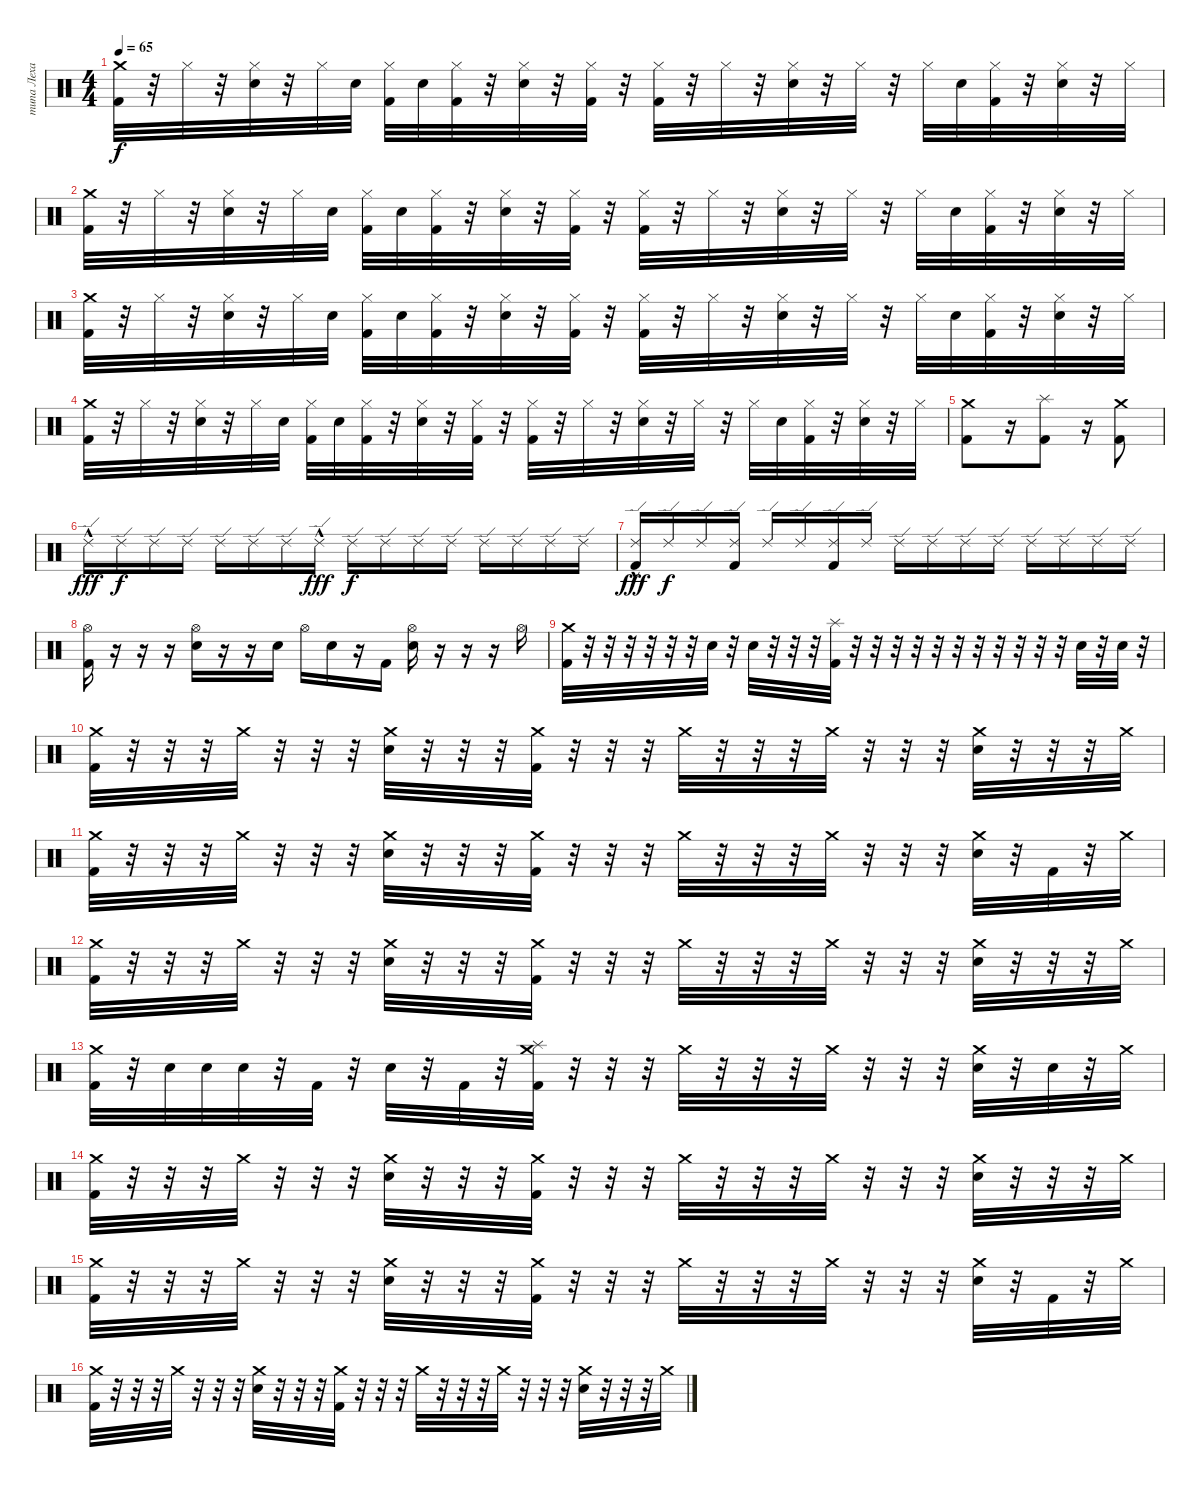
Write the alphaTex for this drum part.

\track ("типа Леха" "типа Леха") {instrument percussion}
\staff {score}
\articulation defaults
\ts (4 4)
\tempo 65
\clef neutral
\ks c
("Kick (hit) 2" "Crash medium (hit)").32{dy f} r.32 "Hi-Hat (closed)".32 r.32 ("Electric Snare (hit)" "Hi-Hat (closed)").32 r.32 "Hi-Hat (closed)".32 "Electric Snare (hit)".32 ("Kick (hit) 2" "Hi-Hat (closed)").32 "Electric Snare (hit)".32 ("Kick (hit) 2" "Hi-Hat (closed)").32 r.32 ("Electric Snare (hit)" "Hi-Hat (closed)").32 r.32 ("Kick (hit) 2" "Hi-Hat (closed)").32 r.32 ("Kick (hit) 2" "Hi-Hat (closed)").32 r.32 "Hi-Hat (closed)".32 r.32 ("Electric Snare (hit)" "Hi-Hat (closed)").32 r.32 "Hi-Hat (closed)".32 r.32 "Hi-Hat (closed)".32 "Electric Snare (hit)".32 ("Kick (hit) 2" "Hi-Hat (closed)").32 r.32 ("Electric Snare (hit)" "Hi-Hat (closed)").32 r.32 "Hi-Hat (closed)".32 |
("Kick (hit) 2" "Crash medium (hit)").32 r.32 "Hi-Hat (closed)".32 r.32 ("Electric Snare (hit)" "Hi-Hat (closed)").32 r.32 "Hi-Hat (closed)".32 "Electric Snare (hit)".32 ("Kick (hit) 2" "Hi-Hat (closed)").32 "Electric Snare (hit)".32 ("Kick (hit) 2" "Hi-Hat (closed)").32 r.32 ("Electric Snare (hit)" "Hi-Hat (closed)").32 r.32 ("Kick (hit) 2" "Hi-Hat (closed)").32 r.32 ("Kick (hit) 2" "Hi-Hat (closed)").32 r.32 "Hi-Hat (closed)".32 r.32 ("Electric Snare (hit)" "Hi-Hat (closed)").32 r.32 "Hi-Hat (closed)".32 r.32 "Hi-Hat (closed)".32 "Electric Snare (hit)".32 ("Kick (hit) 2" "Hi-Hat (closed)").32 r.32 ("Electric Snare (hit)" "Hi-Hat (closed)").32 r.32 "Hi-Hat (closed)".32 |
("Kick (hit) 2" "Crash medium (hit)").32 r.32 "Hi-Hat (closed)".32 r.32 ("Electric Snare (hit)" "Hi-Hat (closed)").32 r.32 "Hi-Hat (closed)".32 "Electric Snare (hit)".32 ("Kick (hit) 2" "Hi-Hat (closed)").32 "Electric Snare (hit)".32 ("Kick (hit) 2" "Hi-Hat (closed)").32 r.32 ("Electric Snare (hit)" "Hi-Hat (closed)").32 r.32 ("Kick (hit) 2" "Hi-Hat (closed)").32 r.32 ("Kick (hit) 2" "Hi-Hat (closed)").32 r.32 "Hi-Hat (closed)".32 r.32 ("Electric Snare (hit)" "Hi-Hat (closed)").32 r.32 "Hi-Hat (closed)".32 r.32 "Hi-Hat (closed)".32 "Electric Snare (hit)".32 ("Kick (hit) 2" "Hi-Hat (closed)").32 r.32 ("Electric Snare (hit)" "Hi-Hat (closed)").32 r.32 "Hi-Hat (closed)".32 |
("Kick (hit) 2" "Crash medium (hit)").32 r.32 "Hi-Hat (closed)".32 r.32 ("Electric Snare (hit)" "Hi-Hat (closed)").32 r.32 "Hi-Hat (closed)".32 "Electric Snare (hit)".32 ("Kick (hit) 2" "Hi-Hat (closed)").32 "Electric Snare (hit)".32 ("Kick (hit) 2" "Hi-Hat (closed)").32 r.32 ("Electric Snare (hit)" "Hi-Hat (closed)").32 r.32 ("Kick (hit) 2" "Hi-Hat (closed)").32 r.32 ("Kick (hit) 2" "Hi-Hat (closed)").32 r.32 "Hi-Hat (closed)".32 r.32 ("Electric Snare (hit)" "Hi-Hat (closed)").32 r.32 "Hi-Hat (closed)".32 r.32 "Hi-Hat (closed)".32 "Electric Snare (hit)".32 ("Kick (hit) 2" "Hi-Hat (closed)").32 r.32 ("Electric Snare (hit)" "Hi-Hat (closed)").32 r.32 "Hi-Hat (closed)".32 |
("Kick (hit) 2" "Crash medium (hit)").8 r.16 ("Kick (hit) 2" "Splash (hit)").8 r.16 ("Kick (hit) 2" "Crash medium (hit)").8 |
"Ride (edge) 2"{hac}.16{dy fff} "Ride (edge) 2".16{dy f} "Ride (edge) 2".16 "Ride (edge) 2".16 "Ride (edge) 2".16 "Ride (edge) 2".16 "Ride (edge) 2".16 "Ride (edge) 2"{hac}.16{dy fff} "Ride (edge) 2".16{dy f} "Ride (edge) 2".16 "Ride (edge) 2".16 "Ride (edge) 2".16 "Ride (edge) 2".16 "Ride (edge) 2".16 "Ride (edge) 2".16 "Ride (edge) 2".16 |
("Kick (hit) 2" "Ride (edge) 2"{hac}).16{dy fff} "Ride (edge) 2".16{dy f} "Ride (edge) 2".16 ("Kick (hit) 2" "Ride (edge) 2").16 "Ride (edge) 2".16 "Ride (edge) 2".16 ("Kick (hit) 2" "Ride (edge) 2").16 "Ride (edge) 2".16 "Ride (edge) 2".16 "Ride (edge) 2".16 "Ride (edge) 2".16 "Ride (edge) 2".16 "Ride (edge) 2".16 "Ride (edge) 2".16 "Ride (edge) 2".16 "Ride (edge) 2".16 |
("Kick (hit) 2" "Hi-Hat (open)").16 r.16 r.16 r.16 ("Electric Snare (hit)" "Hi-Hat (open)").16 r.16 r.16 "Electric Snare (hit)".16 "Hi-Hat (open)".16 "Electric Snare (hit)".16 r.16 "Kick (hit) 2".16 ("Electric Snare (hit)" "Hi-Hat (open)").16 r.16 r.16 r.16 "Hi-Hat (open)".16 |
("Kick (hit) 2" "Crash medium (hit)").32 r.32 r.32 r.32 r.32 r.32 r.32 "Electric Snare (hit)".32 r.32 "Electric Snare (hit)".32 r.32 r.32 r.32 ("Splash (hit)" "Kick (hit) 2").32 r.32 r.32 r.32 r.32 r.32 r.32 r.32 r.32 r.32 r.32 r.32 "Electric Snare (hit)".32 r.32 "Electric Snare (hit)".32 r.32 |
("Crash medium (hit)" "Kick (hit) 2").32 r.32 r.32 r.32 "Crash medium (hit)".32 r.32 r.32 r.32 ("Crash medium (hit)" "Electric Snare (hit)").32 r.32 r.32 r.32 ("Crash medium (hit)" "Kick (hit) 2").32 r.32 r.32 r.32 "Crash medium (hit)".32 r.32 r.32 r.32 "Crash medium (hit)".32 r.32 r.32 r.32 ("Crash medium (hit)" "Electric Snare (hit)").32 r.32 r.32 r.32 "Crash medium (hit)".32 |
("Crash medium (hit)" "Kick (hit) 2").32 r.32 r.32 r.32 "Crash medium (hit)".32 r.32 r.32 r.32 ("Crash medium (hit)" "Electric Snare (hit)").32 r.32 r.32 r.32 ("Crash medium (hit)" "Kick (hit) 2").32 r.32 r.32 r.32 "Crash medium (hit)".32 r.32 r.32 r.32 "Crash medium (hit)".32 r.32 r.32 r.32 ("Crash medium (hit)" "Electric Snare (hit)").32 r.32 "Kick (hit) 2".32 r.32 "Crash medium (hit)".32 |
("Crash medium (hit)" "Kick (hit) 2").32 r.32 r.32 r.32 "Crash medium (hit)".32 r.32 r.32 r.32 ("Crash medium (hit)" "Electric Snare (hit)").32 r.32 r.32 r.32 ("Crash medium (hit)" "Kick (hit) 2").32 r.32 r.32 r.32 "Crash medium (hit)".32 r.32 r.32 r.32 "Crash medium (hit)".32 r.32 r.32 r.32 ("Crash medium (hit)" "Electric Snare (hit)").32 r.32 r.32 r.32 "Crash medium (hit)".32 |
("Crash medium (hit)" "Kick (hit) 2").32 r.32 "Electric Snare (hit)".32 "Electric Snare (hit)".32 "Electric Snare (hit)".32 r.32 "Kick (hit) 2".32 r.32 "Electric Snare (hit)".32 r.32 "Kick (hit) 2".32 r.32 ("Splash (hit)" "Crash medium (hit)" "Kick (hit) 2").32 r.32 r.32 r.32 "Crash medium (hit)".32 r.32 r.32 r.32 "Crash medium (hit)".32 r.32 r.32 r.32 ("Crash medium (hit)" "Electric Snare (hit)").32 r.32 "Electric Snare (hit)".32 r.32 "Crash medium (hit)".32 |
("Crash medium (hit)" "Kick (hit) 2").32 r.32 r.32 r.32 "Crash medium (hit)".32 r.32 r.32 r.32 ("Crash medium (hit)" "Electric Snare (hit)").32 r.32 r.32 r.32 ("Crash medium (hit)" "Kick (hit) 2").32 r.32 r.32 r.32 "Crash medium (hit)".32 r.32 r.32 r.32 "Crash medium (hit)".32 r.32 r.32 r.32 ("Crash medium (hit)" "Electric Snare (hit)").32 r.32 r.32 r.32 "Crash medium (hit)".32 |
("Crash medium (hit)" "Kick (hit) 2").32 r.32 r.32 r.32 "Crash medium (hit)".32 r.32 r.32 r.32 ("Crash medium (hit)" "Electric Snare (hit)").32 r.32 r.32 r.32 ("Crash medium (hit)" "Kick (hit) 2").32 r.32 r.32 r.32 "Crash medium (hit)".32 r.32 r.32 r.32 "Crash medium (hit)".32 r.32 r.32 r.32 ("Crash medium (hit)" "Electric Snare (hit)").32 r.32 "Kick (hit) 2".32 r.32 "Crash medium (hit)".32 |
("Crash medium (hit)" "Kick (hit) 2").32 r.32 r.32 r.32 "Crash medium (hit)".32 r.32 r.32 r.32 ("Crash medium (hit)" "Electric Snare (hit)").32 r.32 r.32 r.32 ("Crash medium (hit)" "Kick (hit) 2").32 r.32 r.32 r.32 "Crash medium (hit)".32 r.32 r.32 r.32 "Crash medium (hit)".32 r.32 r.32 r.32 ("Crash medium (hit)" "Electric Snare (hit)").32 r.32 r.32 r.32 "Crash medium (hit)".32
